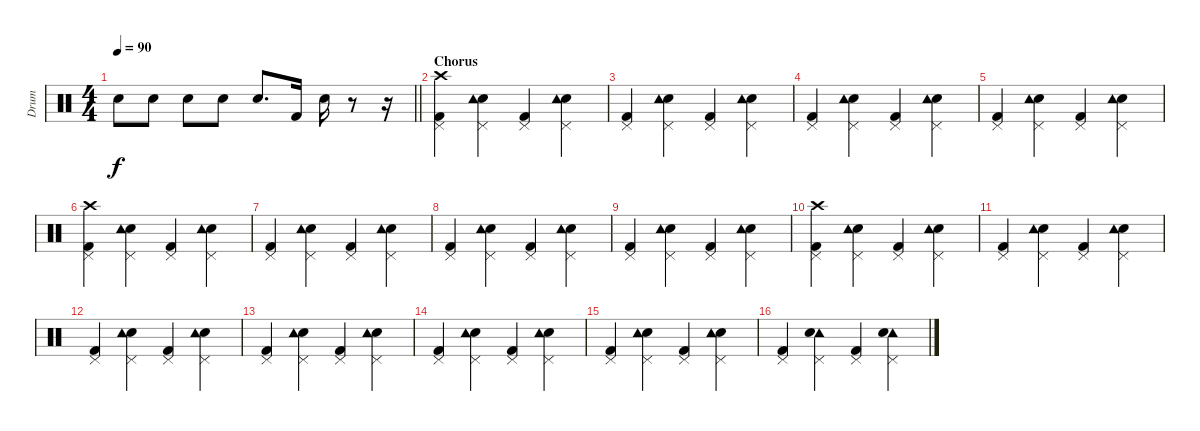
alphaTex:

\track ("Drum" "Drum") {instrument percussion}
\staff {score}
\articulation defaults
\ts (4 4)
\tempo 90
\clef neutral
\barLineRight lightlight
\ks c "Electric Snare (hit)".8{dy f} "Electric Snare (hit)".8 "Electric Snare (hit)".8 "Electric Snare (hit)".8 "Electric Snare (hit)".8{d} "Kick (hit) 2".16 "Electric Snare (hit)".16
r.8 r.16 |
\section ("" "Chorus")
("Pedal Hi-Hat (hit)" "Kick (hit) 2" "Crash high (hit)").4 ("Pedal Hi-Hat (hit)" "Electric Snare (hit)" "Tambourine (hit)").4 ("Pedal Hi-Hat (hit)" "Kick (hit) 2").4 ("Pedal Hi-Hat (hit)" "Electric Snare (hit)" "Tambourine (hit)").4 |
("Pedal Hi-Hat (hit)" "Kick (hit) 2").4 ("Pedal Hi-Hat (hit)" "Electric Snare (hit)" "Tambourine (hit)").4 ("Pedal Hi-Hat (hit)" "Kick (hit) 2").4 ("Pedal Hi-Hat (hit)" "Electric Snare (hit)" "Tambourine (hit)").4 |
("Pedal Hi-Hat (hit)" "Kick (hit) 2").4 ("Pedal Hi-Hat (hit)" "Electric Snare (hit)" "Tambourine (hit)").4 ("Pedal Hi-Hat (hit)" "Kick (hit) 2").4 ("Pedal Hi-Hat (hit)" "Electric Snare (hit)" "Tambourine (hit)").4 |
("Pedal Hi-Hat (hit)" "Kick (hit) 2").4 ("Pedal Hi-Hat (hit)" "Electric Snare (hit)" "Tambourine (hit)").4 ("Pedal Hi-Hat (hit)" "Kick (hit) 2").4 ("Pedal Hi-Hat (hit)" "Electric Snare (hit)" "Tambourine (hit)").4 |
("Pedal Hi-Hat (hit)" "Kick (hit) 2" "Crash high (hit)").4 ("Pedal Hi-Hat (hit)" "Electric Snare (hit)" "Tambourine (hit)").4 ("Pedal Hi-Hat (hit)" "Kick (hit) 2").4 ("Pedal Hi-Hat (hit)" "Electric Snare (hit)" "Tambourine (hit)").4 |
("Pedal Hi-Hat (hit)" "Kick (hit) 2").4 ("Pedal Hi-Hat (hit)" "Electric Snare (hit)" "Tambourine (hit)").4 ("Pedal Hi-Hat (hit)" "Kick (hit) 2").4 ("Pedal Hi-Hat (hit)" "Electric Snare (hit)" "Tambourine (hit)").4 |
("Pedal Hi-Hat (hit)" "Kick (hit) 2").4 ("Pedal Hi-Hat (hit)" "Electric Snare (hit)" "Tambourine (hit)").4 ("Pedal Hi-Hat (hit)" "Kick (hit) 2").4 ("Pedal Hi-Hat (hit)" "Electric Snare (hit)" "Tambourine (hit)").4 |
("Pedal Hi-Hat (hit)" "Kick (hit) 2").4 ("Pedal Hi-Hat (hit)" "Electric Snare (hit)" "Tambourine (hit)").4 ("Pedal Hi-Hat (hit)" "Kick (hit) 2").4 ("Pedal Hi-Hat (hit)" "Electric Snare (hit)" "Tambourine (hit)").4 |
("Pedal Hi-Hat (hit)" "Kick (hit) 2" "Crash high (hit)").4 ("Pedal Hi-Hat (hit)" "Electric Snare (hit)" "Tambourine (hit)").4 ("Pedal Hi-Hat (hit)" "Kick (hit) 2").4 ("Pedal Hi-Hat (hit)" "Electric Snare (hit)" "Tambourine (hit)").4 |
("Pedal Hi-Hat (hit)" "Kick (hit) 2").4 ("Pedal Hi-Hat (hit)" "Electric Snare (hit)" "Tambourine (hit)").4 ("Pedal Hi-Hat (hit)" "Kick (hit) 2").4 ("Pedal Hi-Hat (hit)" "Electric Snare (hit)" "Tambourine (hit)").4 |
("Pedal Hi-Hat (hit)" "Kick (hit) 2").4 ("Pedal Hi-Hat (hit)" "Electric Snare (hit)" "Tambourine (hit)").4 ("Pedal Hi-Hat (hit)" "Kick (hit) 2").4 ("Pedal Hi-Hat (hit)" "Electric Snare (hit)" "Tambourine (hit)").4 |
("Pedal Hi-Hat (hit)" "Kick (hit) 2").4 ("Pedal Hi-Hat (hit)" "Electric Snare (hit)" "Tambourine (hit)").4 ("Pedal Hi-Hat (hit)" "Kick (hit) 2").4 ("Pedal Hi-Hat (hit)" "Electric Snare (hit)" "Tambourine (hit)").4 |
("Pedal Hi-Hat (hit)" "Kick (hit) 2").4 ("Pedal Hi-Hat (hit)" "Electric Snare (hit)" "Tambourine (hit)").4 ("Pedal Hi-Hat (hit)" "Kick (hit) 2").4 ("Pedal Hi-Hat (hit)" "Electric Snare (hit)" "Tambourine (hit)").4 |
("Pedal Hi-Hat (hit)" "Kick (hit) 2").4 ("Pedal Hi-Hat (hit)" "Electric Snare (hit)" "Tambourine (hit)").4 ("Pedal Hi-Hat (hit)" "Kick (hit) 2").4 ("Pedal Hi-Hat (hit)" "Electric Snare (hit)" "Tambourine (hit)").4 |
("Pedal Hi-Hat (hit)" "Kick (hit) 2").4 ("Pedal Hi-Hat (hit)" "Tambourine (hit)" "Electric Snare (hit)").4 ("Pedal Hi-Hat (hit)" "Kick (hit) 2").4 ("Pedal Hi-Hat (hit)" "Tambourine (hit)" "Electric Snare (hit)").4
